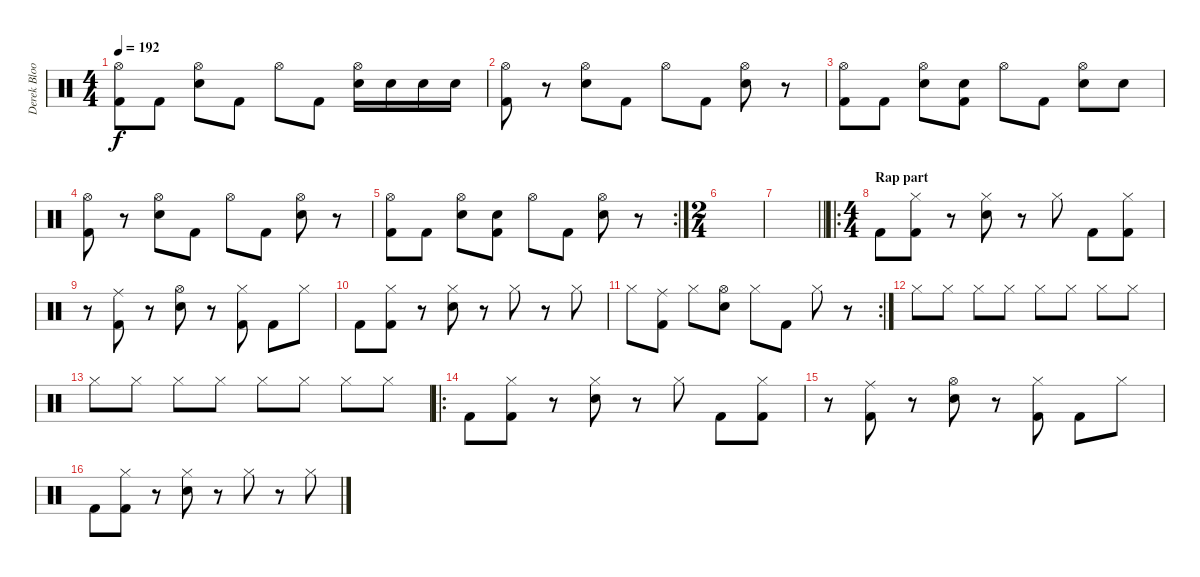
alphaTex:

\track ("Derek Bloom" "Derek Bloo") {instrument percussion}
\staff {score}
\articulation defaults
\ts (4 4)
\tempo 192
\clef neutral
\ks c
("Hi-Hat (open)" "Kick (hit) 2").8{dy f} "Kick (hit) 2".8 ("Hi-Hat (open)" "Electric Snare (hit)").8 "Kick (hit) 2".8 "Hi-Hat (open)".8 "Kick (hit) 2".8 ("Hi-Hat (open)" "Electric Snare (hit)").16 "Electric Snare (hit)".16 "Electric Snare (hit)".16 "Electric Snare (hit)".16 |
("Hi-Hat (open)" "Kick (hit) 2").8 r.8 ("Hi-Hat (open)" "Electric Snare (hit)").8 "Kick (hit) 2".8 "Hi-Hat (open)".8 "Kick (hit) 2".8 ("Hi-Hat (open)" "Electric Snare (hit)").8 r.8 |
("Hi-Hat (open)" "Kick (hit) 2").8 "Kick (hit) 2".8 ("Hi-Hat (open)" "Electric Snare (hit)").8 ("Electric Snare (hit)" "Kick (hit) 2").8 "Hi-Hat (open)".8 "Kick (hit) 2".8 ("Hi-Hat (open)" "Electric Snare (hit)").8 "Electric Snare (hit)".8 |
("Hi-Hat (open)" "Kick (hit) 2").8 r.8 ("Hi-Hat (open)" "Electric Snare (hit)").8 "Kick (hit) 2".8 "Hi-Hat (open)".8 "Kick (hit) 2".8 ("Hi-Hat (open)" "Electric Snare (hit)").8 r.8 |
\rc 2
("Hi-Hat (open)" "Kick (hit) 2").8 "Kick (hit) 2".8 ("Hi-Hat (open)" "Electric Snare (hit)").8 ("Electric Snare (hit)" "Kick (hit) 2").8 "Hi-Hat (open)".8 "Kick (hit) 2".8 ("Hi-Hat (open)" "Electric Snare (hit)").8 r.8 |
\ts (2 4)
|
\barLineRight lightlight
|
\ro
\ts (4 4)
\section ("" "Rap part")
"Kick (hit) 2".8 ("Hi-Hat (closed)" "Kick (hit) 2").8 r.8 ("Hi-Hat (closed)" "Electric Snare (hit)").8 r.8 "Hi-Hat (closed)".8 "Kick (hit) 2".8 ("Hi-Hat (closed)" "Kick (hit) 2").8 |
r.8 ("Ride (middle)" "Kick (hit) 2").8 r.8 ("Hi-Hat (open)" "Electric Snare (hit)").8 r.8 ("Hi-Hat (closed)" "Kick (hit) 2").8 "Kick (hit) 2".8 "Hi-Hat (closed)".8 |
"Kick (hit) 2".8 ("Hi-Hat (closed)" "Kick (hit) 2").8 r.8 ("Hi-Hat (closed)" "Electric Snare (hit)").8 r.8 "Hi-Hat (closed)".8 r.8 "Hi-Hat (closed)".8 |
\rc 2 "Hi-Hat (closed)".8
("Ride (middle)" "Kick (hit) 2").8 "Hi-Hat (closed)".8 ("Hi-Hat (open)" "Electric Snare (hit)").8 "Hi-Hat (closed)".8 "Kick (hit) 2".8 "Hi-Hat (closed)".8 r.8 |
"Hi-Hat (closed)".8 "Hi-Hat (closed)".8 "Hi-Hat (closed)".8 "Hi-Hat (closed)".8 "Hi-Hat (closed)".8 "Hi-Hat (closed)".8 "Hi-Hat (closed)".8 "Hi-Hat (closed)".8 |
"Hi-Hat (closed)".8 "Hi-Hat (closed)".8 "Hi-Hat (closed)".8 "Hi-Hat (closed)".8 "Hi-Hat (closed)".8 "Hi-Hat (closed)".8 "Hi-Hat (closed)".8 "Hi-Hat (closed)".8 |
\ro "Kick (hit) 2".8
("Hi-Hat (closed)" "Kick (hit) 2").8 r.8 ("Hi-Hat (closed)" "Electric Snare (hit)").8 r.8 "Hi-Hat (closed)".8 "Kick (hit) 2".8 ("Hi-Hat (closed)" "Kick (hit) 2").8 |
r.8 ("Ride (middle)" "Kick (hit) 2").8 r.8 ("Hi-Hat (open)" "Electric Snare (hit)").8 r.8 ("Hi-Hat (closed)" "Kick (hit) 2").8 "Kick (hit) 2".8 "Hi-Hat (closed)".8 |
"Kick (hit) 2".8 ("Hi-Hat (closed)" "Kick (hit) 2").8 r.8 ("Hi-Hat (closed)" "Electric Snare (hit)").8 r.8 "Hi-Hat (closed)".8 r.8 "Hi-Hat (closed)".8
